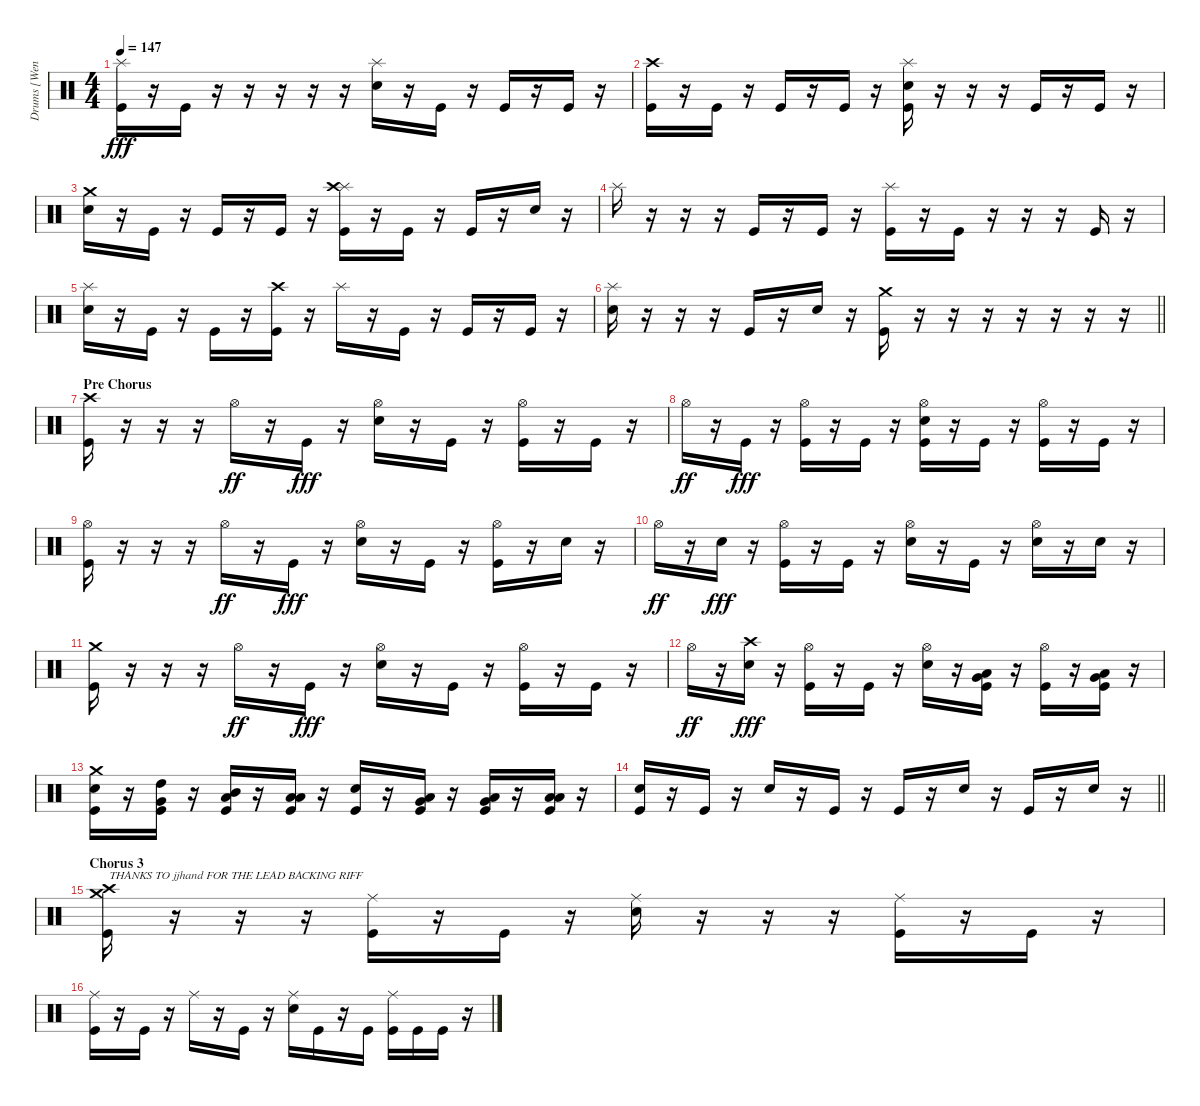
\track ("Drums [Wengren]" "Drums [Wen") {instrument percussion}
\staff {score}
\articulation defaults
\ts (4 4)
\tempo 147
\clef neutral
\ks c
("Splash (hit)" "Kick (hit)").16{dy fff} r.16 "Kick (hit)".16 r.16 r.16 r.16 r.16 r.16 ("Splash (hit)" "Snare (hit) 2").16 r.16 "Kick (hit)".16 r.16 "Kick (hit)".16 r.16 "Kick (hit)".16 r.16 |
("Crash high (hit)" "Kick (hit)").16 r.16 "Kick (hit)".16 r.16 "Kick (hit)".16 r.16 "Kick (hit)".16 r.16 ("Splash (hit)" "Snare (hit) 2" "Kick (hit)").16 r.16 r.16 r.16 "Kick (hit)".16 r.16 "Kick (hit)".16 r.16 |
("Crash medium (hit)" "Snare (hit) 2").16 r.16 "Kick (hit)".16 r.16 "Kick (hit)".16 r.16 "Kick (hit)".16 r.16 ("Splash (hit)" "Crash high (hit)" "Kick (hit)").16 r.16 "Kick (hit)".16 r.16 "Kick (hit)".16 r.16 "Snare (hit) 2".16 r.16 |
"Splash (hit)".16 r.16 r.16 r.16 "Kick (hit)".16 r.16 "Kick (hit)".16 r.16 ("Splash (hit)" "Kick (hit)").16 r.16 "Kick (hit)".16 r.16 r.16 r.16 "Kick (hit)".16 r.16 |
("Splash (hit)" "Snare (hit) 2").16 r.16 "Kick (hit)".16 r.16 "Kick (hit)".16 r.16 ("Crash high (hit)" "Kick (hit)").16 r.16 "Splash (hit)".16 r.16 "Kick (hit)".16 r.16 "Kick (hit)".16 r.16 "Kick (hit)".16 r.16 |
\barLineRight lightlight
("Splash (hit)" "Snare (hit) 2").16 r.16 r.16 r.16 "Kick (hit)".16 r.16 "Snare (hit) 2".16 r.16 ("Crash medium (hit)" "Kick (hit)").16 r.16 r.16 r.16 r.16 r.16 r.16 r.16 |
\section ("" "Pre Chorus")
("Crash high (hit)" "Kick (hit)").16 r.16 r.16 r.16 "Hi-Hat (open)".16{dy ff} r.16 "Kick (hit)".16{dy fff} r.16 ("Hi-Hat (open)" "Snare (hit) 2").16 r.16 "Kick (hit)".16 r.16 ("Hi-Hat (open)" "Kick (hit)").16 r.16 "Kick (hit)".16 r.16 |
"Hi-Hat (open)".16{dy ff} r.16 "Kick (hit)".16{dy fff} r.16 ("Hi-Hat (open)" "Kick (hit)").16 r.16 "Kick (hit)".16 r.16 ("Hi-Hat (open)" "Snare (hit) 2" "Kick (hit)").16 r.16 "Kick (hit)".16 r.16 ("Hi-Hat (open)" "Kick (hit)").16 r.16 "Kick (hit)".16 r.16 |
("Hi-Hat (open)" "Kick (hit)").16 r.16 r.16 r.16 "Hi-Hat (open)".16{dy ff} r.16 "Kick (hit)".16{dy fff} r.16 ("Hi-Hat (open)" "Snare (hit) 2").16 r.16 "Kick (hit)".16 r.16 ("Hi-Hat (open)" "Kick (hit)").16 r.16 "Snare (hit) 2".16 r.16 |
"Hi-Hat (open)".16{dy ff} r.16 "Snare (hit) 2".16{dy fff} r.16 ("Hi-Hat (open)" "Kick (hit)").16 r.16 "Kick (hit)".16 r.16 ("Hi-Hat (open)" "Snare (hit) 2").16 r.16 "Kick (hit)".16 r.16 ("Hi-Hat (open)" "Snare (hit) 2").16 r.16 "Snare (hit) 2".16 r.16 |
("Crash medium (hit)" "Kick (hit)").16 r.16 r.16 r.16 "Hi-Hat (open)".16{dy ff} r.16 "Kick (hit)".16{dy fff} r.16 ("Hi-Hat (open)" "Snare (hit) 2").16 r.16 "Kick (hit)".16 r.16 ("Hi-Hat (open)" "Kick (hit)").16 r.16 "Kick (hit)".16 r.16 |
"Hi-Hat (open)".16{dy ff} r.16 ("Crash high (hit)" "Snare (hit) 2").16{dy fff} r.16 ("Hi-Hat (open)" "Kick (hit)").16 r.16 "Kick (hit)".16 r.16 ("Hi-Hat (open)" "Snare (hit) 2").16 r.16 ("Low Tom (hit)" "Very Low Tom (hit)" "Kick (hit)").16 r.16 ("Hi-Hat (open)" "Kick (hit)").16 r.16 ("Very Low Tom (hit)" "Low Floor Tom (hit)" "Kick (hit)").16 r.16 |
("Crash medium (hit)" "Snare (hit) 2" "Kick (hit)").16 r.16 ("High Tom (hit)" "Very Low Tom (hit)" "Kick (hit)").16 r.16 ("Mid Tom (hit)" "Low Tom (hit)" "Kick (hit)").16 r.16 ("Low Tom (hit)" "Low Floor Tom (hit)" "Kick (hit)").16 r.16 ("Snare (hit) 2" "Kick (hit)").16 r.16 ("Low Tom (hit)" "Very Low Tom (hit)" "Kick (hit)").16 r.16 ("Very Low Tom (hit)" "Low Floor Tom (hit)" "Kick (hit)").16 r.16 ("Low Tom (hit)" "Low Floor Tom (hit)" "Kick (hit)").16 r.16 |
\barLineRight lightlight
("Snare (hit) 2" "Kick (hit)").16 r.16 "Kick (hit)".16 r.16 "Snare (hit) 2".16 r.16 "Kick (hit)".16 r.16 "Kick (hit)".16 r.16 "Snare (hit) 2".16 r.16 "Kick (hit)".16 r.16 "Snare (hit) 2".16 r.16 |
\section ("" "Chorus 3")
("Crash high (hit)" "Crash medium (hit)" "Kick (hit)").16{txt "THANKS TO jjhand FOR THE LEAD BACKING RIFF"} r.16 r.16 r.16 ("Ride (middle)" "Kick (hit)").16 r.16 "Kick (hit)".16 r.16 ("Ride (middle)" "Snare (hit) 2").16 r.16 r.16 r.16 ("Ride (middle)" "Kick (hit)").16 r.16 "Kick (hit)".16 r.16 |
("Ride (middle)" "Kick (hit)").16 r.16 "Kick (hit)".16 r.16 "Ride (middle)".16 r.16 "Kick (hit)".16 r.16 ("Ride (middle)" "Snare (hit) 2").16 "Kick (hit)".16 r.16 "Kick (hit)".16 ("Ride (middle)" "Kick (hit)").16 "Kick (hit)".16 "Kick (hit)".16 r.16
